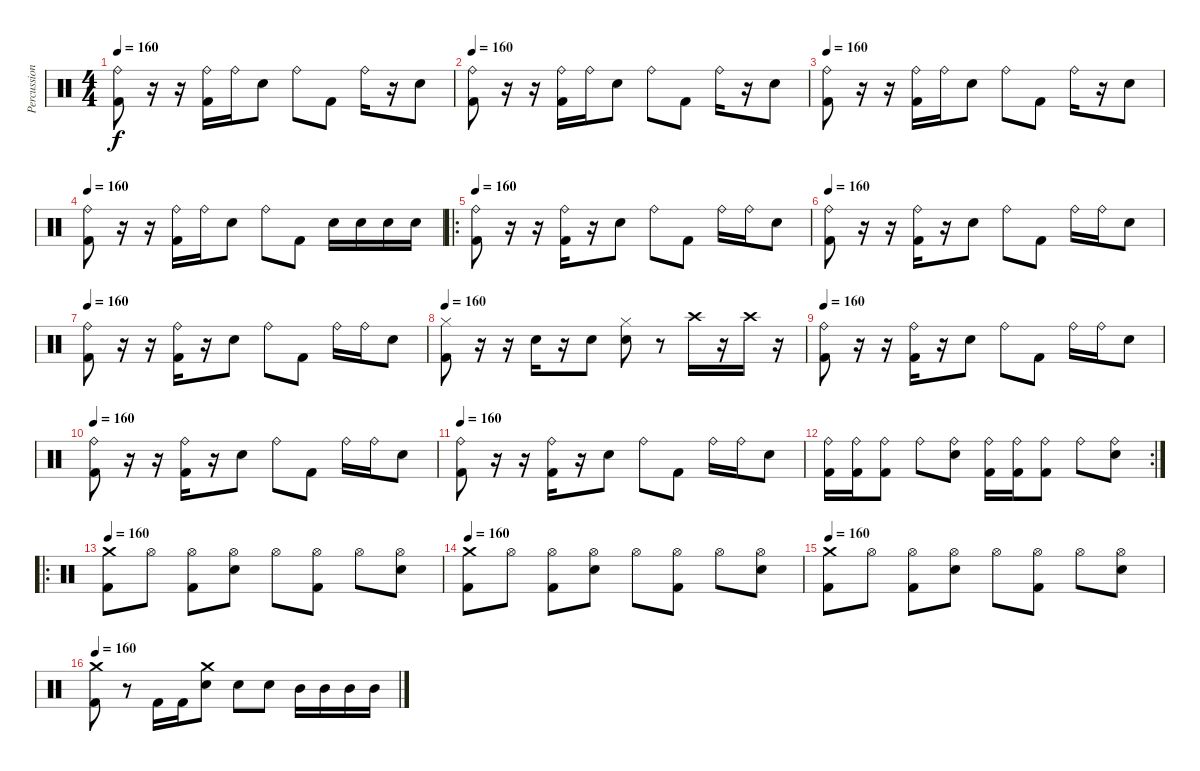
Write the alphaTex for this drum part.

\track ("Percussions" "Percussion") {instrument percussion}
\staff {score}
\articulation defaults
\ts (4 4)
\tempo 160
\clef neutral
\ks c
("Kick (hit) 2" "Ride (bell)").8{dy f} r.16 r.16 ("Kick (hit) 2" "Ride (bell)").16 "Ride (bell)".16 "Electric Snare (hit)".8 "Ride (bell)".8 "Kick (hit) 2".8 "Ride (bell)".16 r.16 "Electric Snare (hit)".8 |
\tempo 160
("Kick (hit) 2" "Ride (bell)").8 r.16 r.16 ("Kick (hit) 2" "Ride (bell)").16 "Ride (bell)".16 "Electric Snare (hit)".8 "Ride (bell)".8 "Kick (hit) 2".8 "Ride (bell)".16 r.16 "Electric Snare (hit)".8 |
\tempo 160
("Kick (hit) 2" "Ride (bell)").8 r.16 r.16 ("Kick (hit) 2" "Ride (bell)").16 "Ride (bell)".16 "Electric Snare (hit)".8 "Ride (bell)".8 "Kick (hit) 2".8 "Ride (bell)".16 r.16 "Electric Snare (hit)".8 |
\tempo 160
("Kick (hit) 2" "Ride (bell)").8 r.16 r.16 ("Kick (hit) 2" "Ride (bell)").16 "Ride (bell)".16 "Electric Snare (hit)".8 "Ride (bell)".8 "Kick (hit) 2".8 "Electric Snare (hit)".16 "Electric Snare (hit)".16 "Snare (hit) 2".16 "Snare (hit) 2".16 |
\ro
\tempo 160
("Kick (hit) 2" "Ride (bell)").8 r.16 r.16 ("Kick (hit) 2" "Ride (bell)").16 r.16 "Electric Snare (hit)".8 "Ride (bell)".8 "Kick (hit) 2".8 "Ride (bell)".16 "Ride (bell)".16 "Electric Snare (hit)".8 |
\tempo 160
("Kick (hit) 2" "Ride (bell)").8 r.16 r.16 ("Kick (hit) 2" "Ride (bell)").16 r.16 "Electric Snare (hit)".8 "Ride (bell)".8 "Kick (hit) 2".8 "Ride (bell)".16 "Ride (bell)".16 "Electric Snare (hit)".8 |
\tempo 160
("Kick (hit) 2" "Ride (bell)").8 r.16 r.16 ("Kick (hit) 2" "Ride (bell)").16 r.16 "Electric Snare (hit)".8 "Ride (bell)".8 "Kick (hit) 2".8 "Ride (bell)".16 "Ride (bell)".16 "Electric Snare (hit)".8 |
\tempo 160
("Kick (hit) 2" "Hi-Hat (closed)").8 r.16 r.16 "Snare (hit) 2".16 r.16 "Electric Snare (hit)".8 ("Electric Snare (hit)" "Hi-Hat (closed)").8 r.8 "Crash high (hit)".16 r.16 "Crash high (hit)".16 r.16 |
\tempo 160
("Kick (hit) 2" "Ride (bell)").8 r.16 r.16 ("Kick (hit) 2" "Ride (bell)").16 r.16 "Electric Snare (hit)".8 "Ride (bell)".8 "Kick (hit) 2".8 "Ride (bell)".16 "Ride (bell)".16 "Electric Snare (hit)".8 |
\tempo 160
("Kick (hit) 2" "Ride (bell)").8 r.16 r.16 ("Kick (hit) 2" "Ride (bell)").16 r.16 "Electric Snare (hit)".8 "Ride (bell)".8 "Kick (hit) 2".8 "Ride (bell)".16 "Ride (bell)".16 "Electric Snare (hit)".8 |
\tempo 160
("Kick (hit) 2" "Ride (bell)").8 r.16 r.16 ("Kick (hit) 2" "Ride (bell)").16 r.16 "Electric Snare (hit)".8 "Ride (bell)".8 "Kick (hit) 2".8 "Ride (bell)".16 "Ride (bell)".16 "Electric Snare (hit)".8 |
\rc 2
("Kick (hit) 2" "Ride (bell)").16 ("Kick (hit) 2" "Ride (bell)").16 ("Kick (hit) 2" "Ride (bell)").8 "Ride (bell)".8 ("Electric Snare (hit)" "Ride (bell)").8 ("Kick (hit) 2" "Ride (bell)").16 ("Kick (hit) 2" "Ride (bell)").16 ("Kick (hit) 2" "Ride (bell)").8 "Ride (bell)".8 ("Electric Snare (hit)" "Ride (bell)").8 |
\ro
\tempo 160
("Crash medium (hit)" "Kick (hit) 2").8 "Hi-Hat (open)".8 ("Hi-Hat (open)" "Kick (hit) 2").8 ("Hi-Hat (open)" "Electric Snare (hit)").8 "Hi-Hat (open)".8 ("Hi-Hat (open)" "Kick (hit) 2").8 "Hi-Hat (open)".8 ("Hi-Hat (open)" "Electric Snare (hit)").8 |
\tempo 160
("Crash medium (hit)" "Kick (hit) 2").8 "Hi-Hat (open)".8 ("Hi-Hat (open)" "Kick (hit) 2").8 ("Hi-Hat (open)" "Electric Snare (hit)").8 "Hi-Hat (open)".8 ("Hi-Hat (open)" "Kick (hit) 2").8 "Hi-Hat (open)".8 ("Hi-Hat (open)" "Electric Snare (hit)").8 |
\tempo 160
("Crash medium (hit)" "Kick (hit) 2").8 "Hi-Hat (open)".8 ("Hi-Hat (open)" "Kick (hit) 2").8 ("Hi-Hat (open)" "Electric Snare (hit)").8 "Hi-Hat (open)".8 ("Hi-Hat (open)" "Kick (hit) 2").8 "Hi-Hat (open)".8 ("Hi-Hat (open)" "Electric Snare (hit)").8 |
\tempo 160
("Crash medium (hit)" "Kick (hit) 2").8 r.8 "Kick (hit) 2".16 "Kick (hit) 2".16 ("Electric Snare (hit)" "Crash medium (hit)").8 "Snare (hit) 2".8 "Snare (hit) 2".8 "Mid Tom (hit)".16 "Mid Tom (hit)".16 "Mid Tom (hit)".16 "Mid Tom (hit)".16
